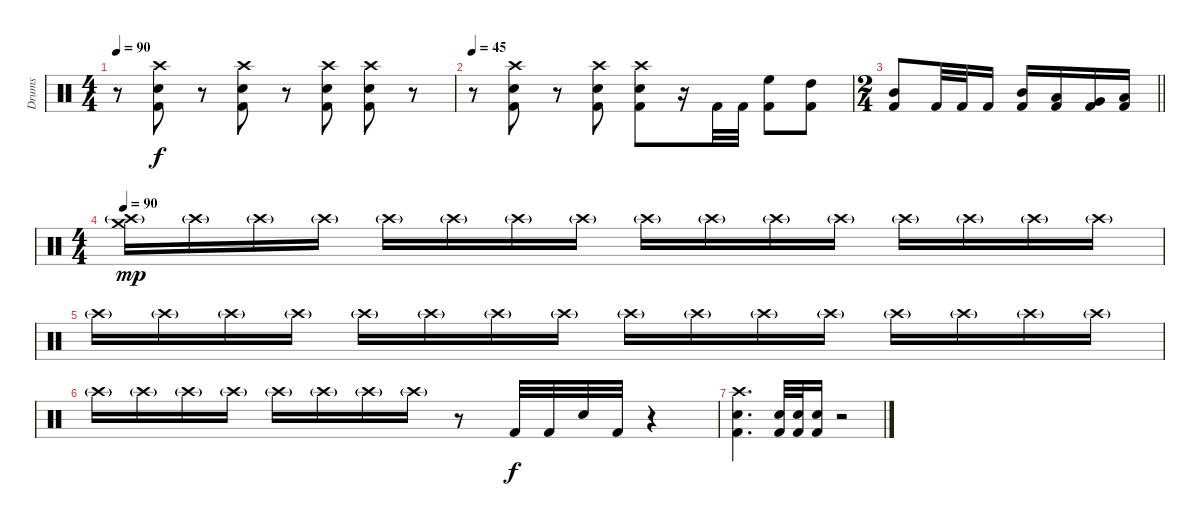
\track ("Drums" "Drums") {instrument percussion}
\staff {score}
\articulation defaults
\ts (4 4)
\tempo 90
\clef neutral
\ks c
r.8{dy f} ("Crash high (hit)" "Electric Snare (hit)" "Kick (hit) 2").8 r.8 ("Crash high (hit)" "Electric Snare (hit)" "Kick (hit) 2").8 r.8 ("Crash high (hit)" "Electric Snare (hit)" "Kick (hit) 2").8 ("Crash high (hit)" "Electric Snare (hit)" "Kick (hit) 2").8 r.8 |
\tempo 45
r.8 ("Crash high (hit)" "Electric Snare (hit)" "Kick (hit) 2").8 r.8 ("Crash high (hit)" "Electric Snare (hit)" "Kick (hit) 2").8 ("Crash high (hit)" "Electric Snare (hit)" "Kick (hit) 2").8 r.16 "Kick (hit) 2".32 "Kick (hit) 2".32 ("High Floor Tom (hit)" "Kick (hit) 2").8 ("High Tom (hit)" "Kick (hit) 2").8 |
\ts (2 4)
\barLineRight lightlight
("Mid Tom (hit)" "Kick (hit) 2").8 "Kick (hit) 2".32 "Kick (hit) 2".32 "Kick (hit) 2".16 ("Mid Tom (hit)" "Kick (hit) 2").16 ("Low Tom (hit)" "Kick (hit) 2").16 ("Very Low Tom (hit)" "Kick (hit) 2").16 ("Low Floor Tom (hit)" "Kick (hit) 2").16 |
\ts (4 4)
\tempo 90
("Crash medium (hit)" "Crash high (hit)"{g}).16{dy mp} "Crash high (hit)"{g}.16 "Crash high (hit)"{g}.16 "Crash high (hit)"{g}.16 "Crash high (hit)"{g}.16 "Crash high (hit)"{g}.16 "Crash high (hit)"{g}.16 "Crash high (hit)"{g}.16 "Crash high (hit)"{g}.16 "Crash high (hit)"{g}.16 "Crash high (hit)"{g}.16 "Crash high (hit)"{g}.16 "Crash high (hit)"{g}.16 "Crash high (hit)"{g}.16 "Crash high (hit)"{g}.16 "Crash high (hit)"{g}.16 |
"Crash high (hit)"{g}.16 "Crash high (hit)"{g}.16 "Crash high (hit)"{g}.16 "Crash high (hit)"{g}.16 "Crash high (hit)"{g}.16 "Crash high (hit)"{g}.16 "Crash high (hit)"{g}.16 "Crash high (hit)"{g}.16 "Crash high (hit)"{g}.16 "Crash high (hit)"{g}.16 "Crash high (hit)"{g}.16 "Crash high (hit)"{g}.16 "Crash high (hit)"{g}.16 "Crash high (hit)"{g}.16 "Crash high (hit)"{g}.16 "Crash high (hit)"{g}.16 |
"Crash high (hit)"{g}.16 "Crash high (hit)"{g}.16 "Crash high (hit)"{g}.16 "Crash high (hit)"{g}.16 "Crash high (hit)"{g}.16 "Crash high (hit)"{g}.16 "Crash high (hit)"{g}.16 "Crash high (hit)"{g}.16 r.8 "Kick (hit) 2".32{dy f} "Kick (hit) 2".32 "Electric Snare (hit)".32 "Kick (hit) 2".32 r.4 |
("Crash high (hit)" "Electric Snare (hit)" "Kick (hit) 2").4{d} ("Electric Snare (hit)" "Kick (hit) 2").32 ("Electric Snare (hit)" "Kick (hit) 2").32 ("Electric Snare (hit)" "Kick (hit) 2").16 r.2
